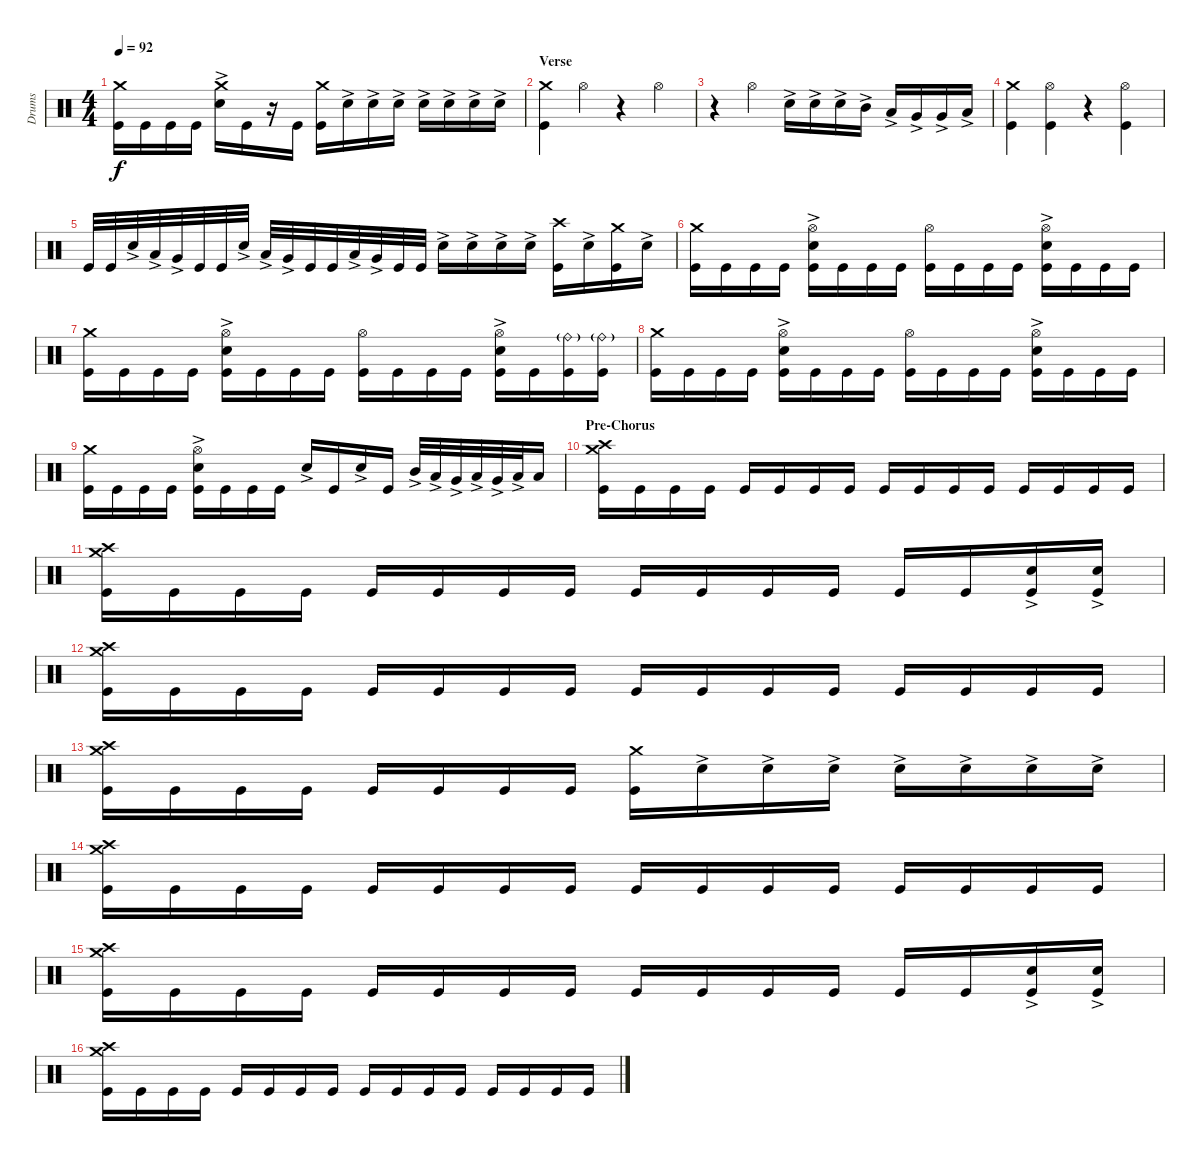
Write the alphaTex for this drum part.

\track ("Drums" "Drums") {instrument percussion}
\staff {score}
\articulation defaults
\ts (4 4)
\tempo 92
\clef neutral
\ks c
("Crash medium (hit)" "Kick (hit)").16{dy f} "Kick (hit)".16 "Kick (hit)".16 "Kick (hit)".16 ("Crash medium (hit)" "Snare (hit) 2"{ac}).16 "Kick (hit)".16 r.16 "Kick (hit)".16 ("Kick (hit)" "Crash medium (hit)").16 "Snare (hit) 2"{ac}.16 "Snare (hit) 2"{ac}.16 "Snare (hit) 2"{ac}.16 "Snare (hit) 2"{ac}.16 "Snare (hit) 2"{ac}.16 "Snare (hit) 2"{ac}.16 "Snare (hit) 2"{ac}.16 |
\section ("" "Verse")
("Kick (hit)" "Crash medium (hit)").4 "Hi-Hat (open)".4 r.4 "Hi-Hat (open)".4 |
r.4 "Hi-Hat (open)".4 "Snare (hit) 2"{ac}.16 "Snare (hit) 2"{ac}.16 "Snare (hit) 2"{ac}.16 "Mid Tom (hit)"{ac}.16 "Low Tom (hit)"{ac}.16 "Very Low Tom (hit)"{ac}.16 "Very Low Tom (hit)"{ac}.16 "Low Floor Tom (hit)"{ac}.16 |
("Kick (hit)" "Crash medium (hit)").4 ("Hi-Hat (open)" "Kick (hit)").4 r.4 ("Hi-Hat (open)" "Kick (hit)").4 |
"Kick (hit)".32 "Kick (hit)".32 "Snare (hit) 2"{ac}.32 "Low Tom (hit)"{ac}.32 "Very Low Tom (hit)"{ac}.32 "Kick (hit)".32 "Kick (hit)".32 "Snare (hit) 2"{ac}.32 "Low Tom (hit)"{ac}.32 "Very Low Tom (hit)"{ac}.32 "Kick (hit)".32 "Kick (hit)".32 "Low Tom (hit)"{ac}.32 "Very Low Tom (hit)"{ac}.32 "Kick (hit)".32 "Kick (hit)".32 "Snare (hit) 2"{ac}.16 "Snare (hit) 2"{ac}.16 "Snare (hit) 2"{ac}.16 "Snare (hit) 2"{ac}.16 ("Kick (hit)" "Crash high (hit)").16 "Snare (hit) 2"{ac}.16 ("Kick (hit)" "Crash medium (hit)").16 "Snare (hit) 2"{ac}.16 |
("Kick (hit)" "Crash medium (hit)").16 "Kick (hit)".16 "Kick (hit)".16 "Kick (hit)".16 ("Kick (hit)" "Hi-Hat (open)" "Snare (hit) 2"{ac}).16 "Kick (hit)".16 "Kick (hit)".16 "Kick (hit)".16 ("Kick (hit)" "Hi-Hat (open)").16 "Kick (hit)".16 "Kick (hit)".16 "Kick (hit)".16 ("Kick (hit)" "Hi-Hat (open)" "Snare (hit) 2"{ac}).16 "Kick (hit)".16 "Kick (hit)".16 "Kick (hit)".16 |
("Kick (hit)" "Crash medium (hit)").16 "Kick (hit)".16 "Kick (hit)".16 "Kick (hit)".16 ("Kick (hit)" "Hi-Hat (open)" "Snare (hit) 2"{ac}).16 "Kick (hit)".16 "Kick (hit)".16 "Kick (hit)".16 ("Kick (hit)" "Hi-Hat (open)").16 "Kick (hit)".16 "Kick (hit)".16 "Kick (hit)".16 ("Kick (hit)" "Hi-Hat (open)" "Snare (hit) 2"{ac}).16 "Kick (hit)".16 ("Kick (hit)" "Ride (bell)"{g}).16 ("Kick (hit)" "Ride (bell)"{g}).16 |
("Kick (hit)" "Crash medium (hit)").16 "Kick (hit)".16 "Kick (hit)".16 "Kick (hit)".16 ("Kick (hit)" "Hi-Hat (open)" "Snare (hit) 2"{ac}).16 "Kick (hit)".16 "Kick (hit)".16 "Kick (hit)".16 ("Kick (hit)" "Hi-Hat (open)").16 "Kick (hit)".16 "Kick (hit)".16 "Kick (hit)".16 ("Kick (hit)" "Hi-Hat (open)" "Snare (hit) 2"{ac}).16 "Kick (hit)".16 "Kick (hit)".16 "Kick (hit)".16 |
("Kick (hit)" "Crash medium (hit)").16 "Kick (hit)".16 "Kick (hit)".16 "Kick (hit)".16 ("Kick (hit)" "Hi-Hat (open)" "Snare (hit) 2"{ac}).16 "Kick (hit)".16 "Kick (hit)".16 "Kick (hit)".16 "Snare (hit) 2"{ac}.16 "Kick (hit)".16 "Snare (hit) 2"{ac}.16 "Kick (hit)".16 "Mid Tom (hit)"{ac}.32 "Low Tom (hit)"{ac}.32 "Very Low Tom (hit)"{ac}.32 "Low Tom (hit)"{ac}.32 "Very Low Tom (hit)"{ac}.32 "Low Floor Tom (hit)"{ac}.32 "Low Floor Tom (hit)".16 |
\section ("" "Pre-Chorus")
("Kick (hit)" "Crash medium (hit)" "Crash high (hit)").16 "Kick (hit)".16 "Kick (hit)".16 "Kick (hit)".16 "Kick (hit)".16 "Kick (hit)".16 "Kick (hit)".16 "Kick (hit)".16 "Kick (hit)".16 "Kick (hit)".16 "Kick (hit)".16 "Kick (hit)".16 "Kick (hit)".16 "Kick (hit)".16 "Kick (hit)".16 "Kick (hit)".16 |
("Kick (hit)" "Crash medium (hit)" "Crash high (hit)").16 "Kick (hit)".16 "Kick (hit)".16 "Kick (hit)".16 "Kick (hit)".16 "Kick (hit)".16 "Kick (hit)".16 "Kick (hit)".16 "Kick (hit)".16 "Kick (hit)".16 "Kick (hit)".16 "Kick (hit)".16 "Kick (hit)".16 "Kick (hit)".16 ("Kick (hit)" "Snare (hit) 2"{ac}).16 ("Kick (hit)" "Snare (hit) 2"{ac}).16 |
("Kick (hit)" "Crash medium (hit)" "Crash high (hit)").16 "Kick (hit)".16 "Kick (hit)".16 "Kick (hit)".16 "Kick (hit)".16 "Kick (hit)".16 "Kick (hit)".16 "Kick (hit)".16 "Kick (hit)".16 "Kick (hit)".16 "Kick (hit)".16 "Kick (hit)".16 "Kick (hit)".16 "Kick (hit)".16 "Kick (hit)".16 "Kick (hit)".16 |
("Kick (hit)" "Crash medium (hit)" "Crash high (hit)").16 "Kick (hit)".16 "Kick (hit)".16 "Kick (hit)".16 "Kick (hit)".16 "Kick (hit)".16 "Kick (hit)".16 "Kick (hit)".16 ("Kick (hit)" "Crash medium (hit)").16 "Snare (hit) 2"{ac}.16 "Snare (hit) 2"{ac}.16 "Snare (hit) 2"{ac}.16 "Snare (hit) 2"{ac}.16 "Snare (hit) 2"{ac}.16 "Snare (hit) 2"{ac}.16 "Snare (hit) 2"{ac}.16 |
("Kick (hit)" "Crash medium (hit)" "Crash high (hit)").16 "Kick (hit)".16 "Kick (hit)".16 "Kick (hit)".16 "Kick (hit)".16 "Kick (hit)".16 "Kick (hit)".16 "Kick (hit)".16 "Kick (hit)".16 "Kick (hit)".16 "Kick (hit)".16 "Kick (hit)".16 "Kick (hit)".16 "Kick (hit)".16 "Kick (hit)".16 "Kick (hit)".16 |
("Kick (hit)" "Crash medium (hit)" "Crash high (hit)").16 "Kick (hit)".16 "Kick (hit)".16 "Kick (hit)".16 "Kick (hit)".16 "Kick (hit)".16 "Kick (hit)".16 "Kick (hit)".16 "Kick (hit)".16 "Kick (hit)".16 "Kick (hit)".16 "Kick (hit)".16 "Kick (hit)".16 "Kick (hit)".16 ("Kick (hit)" "Snare (hit) 2"{ac}).16 ("Kick (hit)" "Snare (hit) 2"{ac}).16 |
("Kick (hit)" "Crash medium (hit)" "Crash high (hit)").16 "Kick (hit)".16 "Kick (hit)".16 "Kick (hit)".16 "Kick (hit)".16 "Kick (hit)".16 "Kick (hit)".16 "Kick (hit)".16 "Kick (hit)".16 "Kick (hit)".16 "Kick (hit)".16 "Kick (hit)".16 "Kick (hit)".16 "Kick (hit)".16 "Kick (hit)".16 "Kick (hit)".16
